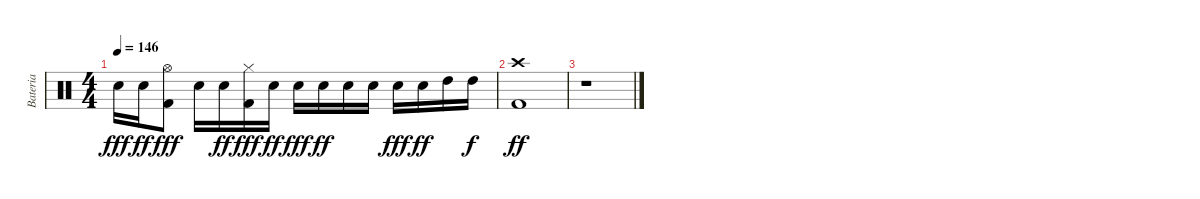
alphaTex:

\track ("Bateria" "Bateria") {instrument percussion}
\staff {score}
\articulation defaults
\ts (4 4)
\tempo 146
\clef neutral
\ks c "Electric Snare (hit)".16{dy fff} "Electric Snare (hit)".16{dy ff}
("Hi-Hat (open)" "Kick (hit) 2").8{dy fff} "Electric Snare (hit)".16 "Electric Snare (hit)".16{dy ff} ("Hi-Hat (closed)" "Kick (hit) 2").16{dy fff} "Electric Snare (hit)".16{dy ff} "Electric Snare (hit)".16{dy fff} "Electric Snare (hit)".16{dy ff} "Electric Snare (hit)".16 "Electric Snare (hit)".16 "Electric Snare (hit)".16{dy fff} "Electric Snare (hit)".16{dy ff} "High Tom (hit)".16 "High Tom (hit)".16{dy f} |
("Kick (hit) 2" "Crash high (hit)").1{dy ff} |
r.1
